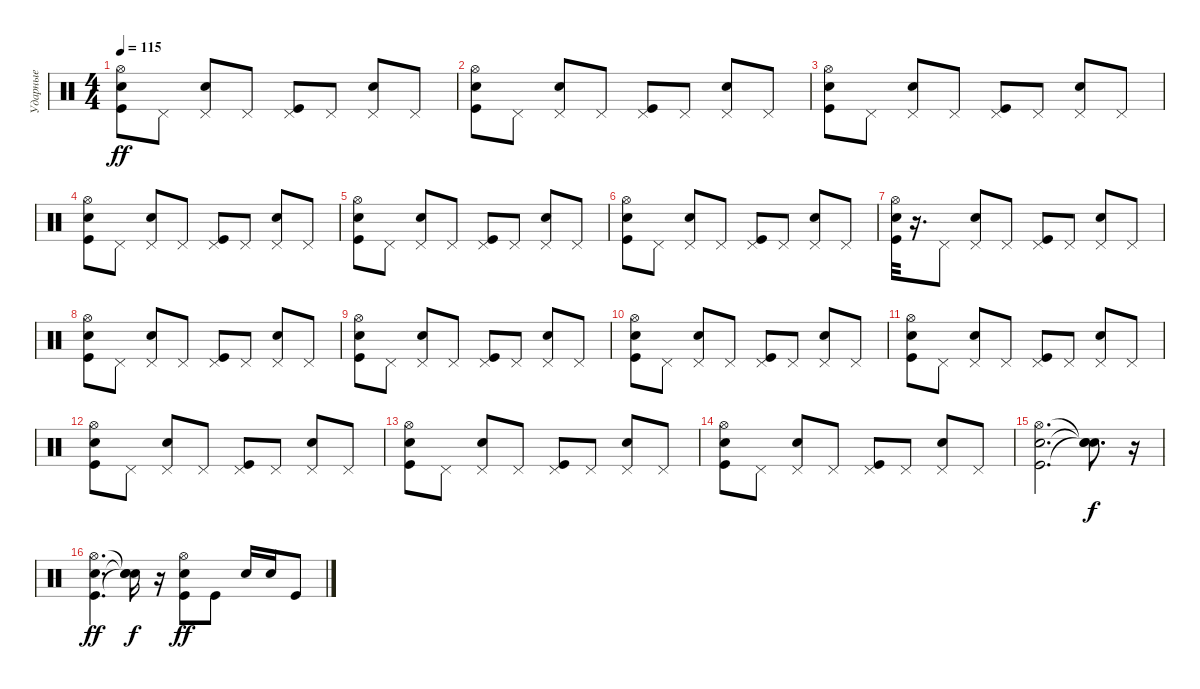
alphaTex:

\track ("Ударные" "Ударные") {instrument percussion}
\staff {score}
\articulation defaults
\ts (4 4)
\tempo 115
\clef neutral
\ks c
("Kick (hit)" "Electric Snare (hit)" "Hi-Hat (open)").8{dy ff} "Pedal Hi-Hat (hit)".8 ("Electric Snare (hit)" "Pedal Hi-Hat (hit)").8 "Pedal Hi-Hat (hit)".8 ("Kick (hit)" "Pedal Hi-Hat (hit)").8 "Pedal Hi-Hat (hit)".8 ("Electric Snare (hit)" "Pedal Hi-Hat (hit)").8 "Pedal Hi-Hat (hit)".8 |
("Kick (hit)" "Electric Snare (hit)" "Hi-Hat (open)").8 "Pedal Hi-Hat (hit)".8 ("Electric Snare (hit)" "Pedal Hi-Hat (hit)").8 "Pedal Hi-Hat (hit)".8 ("Kick (hit)" "Pedal Hi-Hat (hit)").8 "Pedal Hi-Hat (hit)".8 ("Electric Snare (hit)" "Pedal Hi-Hat (hit)").8 "Pedal Hi-Hat (hit)".8 |
("Kick (hit)" "Electric Snare (hit)" "Hi-Hat (open)").8 "Pedal Hi-Hat (hit)".8 ("Electric Snare (hit)" "Pedal Hi-Hat (hit)").8 "Pedal Hi-Hat (hit)".8 ("Kick (hit)" "Pedal Hi-Hat (hit)").8 "Pedal Hi-Hat (hit)".8 ("Electric Snare (hit)" "Pedal Hi-Hat (hit)").8 "Pedal Hi-Hat (hit)".8 |
("Kick (hit)" "Electric Snare (hit)" "Hi-Hat (open)").8 "Pedal Hi-Hat (hit)".8 ("Electric Snare (hit)" "Pedal Hi-Hat (hit)").8 "Pedal Hi-Hat (hit)".8 ("Kick (hit)" "Pedal Hi-Hat (hit)").8 "Pedal Hi-Hat (hit)".8 ("Electric Snare (hit)" "Pedal Hi-Hat (hit)").8 "Pedal Hi-Hat (hit)".8 |
("Kick (hit)" "Electric Snare (hit)" "Hi-Hat (open)").8 "Pedal Hi-Hat (hit)".8 ("Electric Snare (hit)" "Pedal Hi-Hat (hit)").8 "Pedal Hi-Hat (hit)".8 ("Kick (hit)" "Pedal Hi-Hat (hit)").8 "Pedal Hi-Hat (hit)".8 ("Electric Snare (hit)" "Pedal Hi-Hat (hit)").8 "Pedal Hi-Hat (hit)".8 |
("Kick (hit)" "Electric Snare (hit)" "Hi-Hat (open)").8 "Pedal Hi-Hat (hit)".8 ("Electric Snare (hit)" "Pedal Hi-Hat (hit)").8 "Pedal Hi-Hat (hit)".8 ("Kick (hit)" "Pedal Hi-Hat (hit)").8 "Pedal Hi-Hat (hit)".8 ("Electric Snare (hit)" "Pedal Hi-Hat (hit)").8 "Pedal Hi-Hat (hit)".8 |
("Kick (hit)" "Electric Snare (hit)" "Hi-Hat (open)").32 r.16{d} "Pedal Hi-Hat (hit)".8 ("Electric Snare (hit)" "Pedal Hi-Hat (hit)").8 "Pedal Hi-Hat (hit)".8 ("Kick (hit)" "Pedal Hi-Hat (hit)").8 "Pedal Hi-Hat (hit)".8 ("Electric Snare (hit)" "Pedal Hi-Hat (hit)").8 "Pedal Hi-Hat (hit)".8 |
("Kick (hit)" "Electric Snare (hit)" "Hi-Hat (open)").8 "Pedal Hi-Hat (hit)".8 ("Electric Snare (hit)" "Pedal Hi-Hat (hit)").8 "Pedal Hi-Hat (hit)".8 ("Kick (hit)" "Pedal Hi-Hat (hit)").8 "Pedal Hi-Hat (hit)".8 ("Electric Snare (hit)" "Pedal Hi-Hat (hit)").8 "Pedal Hi-Hat (hit)".8 |
("Kick (hit)" "Electric Snare (hit)" "Hi-Hat (open)").8 "Pedal Hi-Hat (hit)".8 ("Electric Snare (hit)" "Pedal Hi-Hat (hit)").8 "Pedal Hi-Hat (hit)".8 ("Kick (hit)" "Pedal Hi-Hat (hit)").8 "Pedal Hi-Hat (hit)".8 ("Electric Snare (hit)" "Pedal Hi-Hat (hit)").8 "Pedal Hi-Hat (hit)".8 |
("Kick (hit)" "Electric Snare (hit)" "Hi-Hat (open)").8 "Pedal Hi-Hat (hit)".8 ("Electric Snare (hit)" "Pedal Hi-Hat (hit)").8 "Pedal Hi-Hat (hit)".8 ("Kick (hit)" "Pedal Hi-Hat (hit)").8 "Pedal Hi-Hat (hit)".8 ("Electric Snare (hit)" "Pedal Hi-Hat (hit)").8 "Pedal Hi-Hat (hit)".8 |
("Kick (hit)" "Electric Snare (hit)" "Hi-Hat (open)").8 "Pedal Hi-Hat (hit)".8 ("Electric Snare (hit)" "Pedal Hi-Hat (hit)").8 "Pedal Hi-Hat (hit)".8 ("Kick (hit)" "Pedal Hi-Hat (hit)").8 "Pedal Hi-Hat (hit)".8 ("Electric Snare (hit)" "Pedal Hi-Hat (hit)").8 "Pedal Hi-Hat (hit)".8 |
("Kick (hit)" "Electric Snare (hit)" "Hi-Hat (open)").8 "Pedal Hi-Hat (hit)".8 ("Electric Snare (hit)" "Pedal Hi-Hat (hit)").8 "Pedal Hi-Hat (hit)".8 ("Kick (hit)" "Pedal Hi-Hat (hit)").8 "Pedal Hi-Hat (hit)".8 ("Electric Snare (hit)" "Pedal Hi-Hat (hit)").8 "Pedal Hi-Hat (hit)".8 |
("Kick (hit)" "Electric Snare (hit)" "Hi-Hat (open)").8 "Pedal Hi-Hat (hit)".8 ("Electric Snare (hit)" "Pedal Hi-Hat (hit)").8 "Pedal Hi-Hat (hit)".8 ("Kick (hit)" "Pedal Hi-Hat (hit)").8 "Pedal Hi-Hat (hit)".8 ("Electric Snare (hit)" "Pedal Hi-Hat (hit)").8 "Pedal Hi-Hat (hit)".8 |
("Kick (hit)" "Electric Snare (hit)" "Hi-Hat (open)").8 "Pedal Hi-Hat (hit)".8 ("Electric Snare (hit)" "Pedal Hi-Hat (hit)").8 "Pedal Hi-Hat (hit)".8 ("Kick (hit)" "Pedal Hi-Hat (hit)").8 "Pedal Hi-Hat (hit)".8 ("Electric Snare (hit)" "Pedal Hi-Hat (hit)").8 "Pedal Hi-Hat (hit)".8 |
("Kick (hit)" "Electric Snare (hit)" "Hi-Hat (open)").2{d} ("Snare (hit)"{t} "Snare (hit)"{t} "Snare (hit)"{t}).8{d dy f} r.16 |
("Kick (hit)" "Electric Snare (hit)" "Hi-Hat (open)").4{d dy ff} ("Snare (hit)"{t} "Snare (hit)"{t} "Snare (hit)"{t}).16{dy f} r.16 ("Kick (hit)" "Electric Snare (hit)" "Hi-Hat (open)").8{dy ff} "Kick (hit)".8 "Electric Snare (hit)".16 "Electric Snare (hit)".16 "Kick (hit)".8
